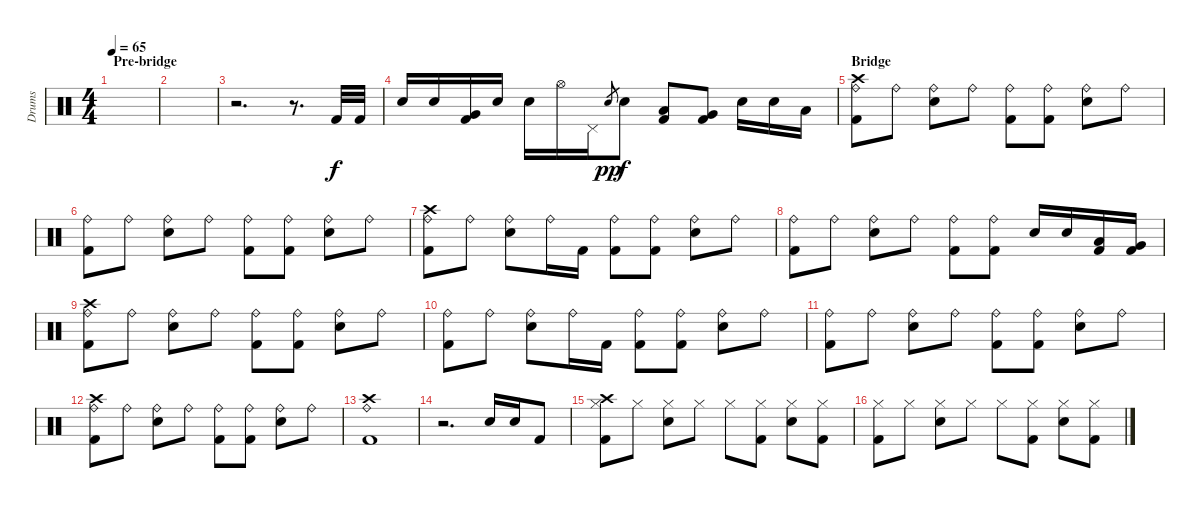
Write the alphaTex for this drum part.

\track ("Drums" "Drums") {instrument percussion}
\staff {score}
\articulation defaults
\ts (4 4)
\section ("" "Pre-bridge")
\tempo 65
\clef neutral
\ks c
|
|
r.2{d} r.8{d} "Kick (hit) 2".32 "Kick (hit) 2".32 |
"Electric Snare (hit)".16 "Electric Snare (hit)".16 ("Kick (hit) 2" "Very Low Tom (hit)").16 "Electric Snare (hit)".16 "Electric Snare (hit)".16 "Hi-Hat (open)".16 "Pedal Hi-Hat (hit)".16 "Electric Snare (hit)".8{gr dy pp} "Electric Snare (hit)".8{dy f} ("Low Tom (hit)" "Kick (hit) 2").8 ("Very Low Tom (hit)" "Kick (hit) 2").8 "Electric Snare (hit)".16 "Electric Snare (hit)".16 "Low Tom (hit)".16 |
\section ("" "Bridge")
("Ride (bell)" "Kick (hit) 2" "Crash high (hit)").8 "Ride (bell)".8 ("Ride (bell)" "Electric Snare (hit)").8 "Ride (bell)".8 ("Ride (bell)" "Kick (hit) 2").8 ("Ride (bell)" "Kick (hit) 2").8 ("Ride (bell)" "Electric Snare (hit)").8 "Ride (bell)".8 |
("Ride (bell)" "Kick (hit) 2").8 "Ride (bell)".8 ("Ride (bell)" "Electric Snare (hit)").8 "Ride (bell)".8 ("Ride (bell)" "Kick (hit) 2").8 ("Ride (bell)" "Kick (hit) 2").8 ("Ride (bell)" "Electric Snare (hit)").8 "Ride (bell)".8 |
("Ride (bell)" "Kick (hit) 2" "Crash high (hit)").8 "Ride (bell)".8 ("Ride (bell)" "Electric Snare (hit)").8 "Ride (bell)".16 "Kick (hit) 2".16 ("Ride (bell)" "Kick (hit) 2").8 ("Ride (bell)" "Kick (hit) 2").8 ("Ride (bell)" "Electric Snare (hit)").8 "Ride (bell)".8 |
("Ride (bell)" "Kick (hit) 2").8 "Ride (bell)".8 ("Ride (bell)" "Electric Snare (hit)").8 "Ride (bell)".8 ("Ride (bell)" "Kick (hit) 2").8 ("Ride (bell)" "Kick (hit) 2").8 "Electric Snare (hit)".16 "Electric Snare (hit)".16 ("Kick (hit) 2" "Low Tom (hit)").16 ("Kick (hit) 2" "Very Low Tom (hit)").16 |
("Ride (bell)" "Kick (hit) 2" "Crash high (hit)").8 "Ride (bell)".8 ("Ride (bell)" "Electric Snare (hit)").8 "Ride (bell)".8 ("Ride (bell)" "Kick (hit) 2").8 ("Ride (bell)" "Kick (hit) 2").8 ("Ride (bell)" "Electric Snare (hit)").8 "Ride (bell)".8 |
("Ride (bell)" "Kick (hit) 2").8 "Ride (bell)".8 ("Ride (bell)" "Electric Snare (hit)").8 "Ride (bell)".16 "Kick (hit) 2".16 ("Ride (bell)" "Kick (hit) 2").8 ("Ride (bell)" "Kick (hit) 2").8 ("Ride (bell)" "Electric Snare (hit)").8 "Ride (bell)".8 |
("Ride (bell)" "Kick (hit) 2").8 "Ride (bell)".8 ("Ride (bell)" "Electric Snare (hit)").8 "Ride (bell)".8 ("Ride (bell)" "Kick (hit) 2").8 ("Ride (bell)" "Kick (hit) 2").8 ("Ride (bell)" "Electric Snare (hit)").8 "Ride (bell)".8 |
("Ride (bell)" "Kick (hit) 2" "Crash high (hit)").8 "Ride (bell)".8 ("Ride (bell)" "Electric Snare (hit)").8 "Ride (bell)".8 ("Ride (bell)" "Kick (hit) 2").8 ("Ride (bell)" "Kick (hit) 2").8 ("Ride (bell)" "Electric Snare (hit)").8 "Ride (bell)".8 |
("Kick (hit) 2" "Ride (bell)" "Crash high (hit)").1 |
r.2{d} "Electric Snare (hit)".16 "Electric Snare (hit)".16 "Kick (hit) 2".8 |
("Hi-Hat (closed)" "Kick (hit) 2" "Crash high (hit)").8 "Hi-Hat (closed)".8 ("Hi-Hat (closed)" "Electric Snare (hit)").8 "Hi-Hat (closed)".8 "Hi-Hat (closed)".8 ("Hi-Hat (closed)" "Kick (hit) 2").8 ("Hi-Hat (closed)" "Electric Snare (hit)").8 ("Hi-Hat (closed)" "Kick (hit) 2").8 |
("Hi-Hat (closed)" "Kick (hit) 2").8 "Hi-Hat (closed)".8 ("Hi-Hat (closed)" "Electric Snare (hit)").8 "Hi-Hat (closed)".8 "Hi-Hat (closed)".8 ("Hi-Hat (closed)" "Kick (hit) 2").8 ("Hi-Hat (closed)" "Electric Snare (hit)").8 ("Hi-Hat (closed)" "Kick (hit) 2").8
